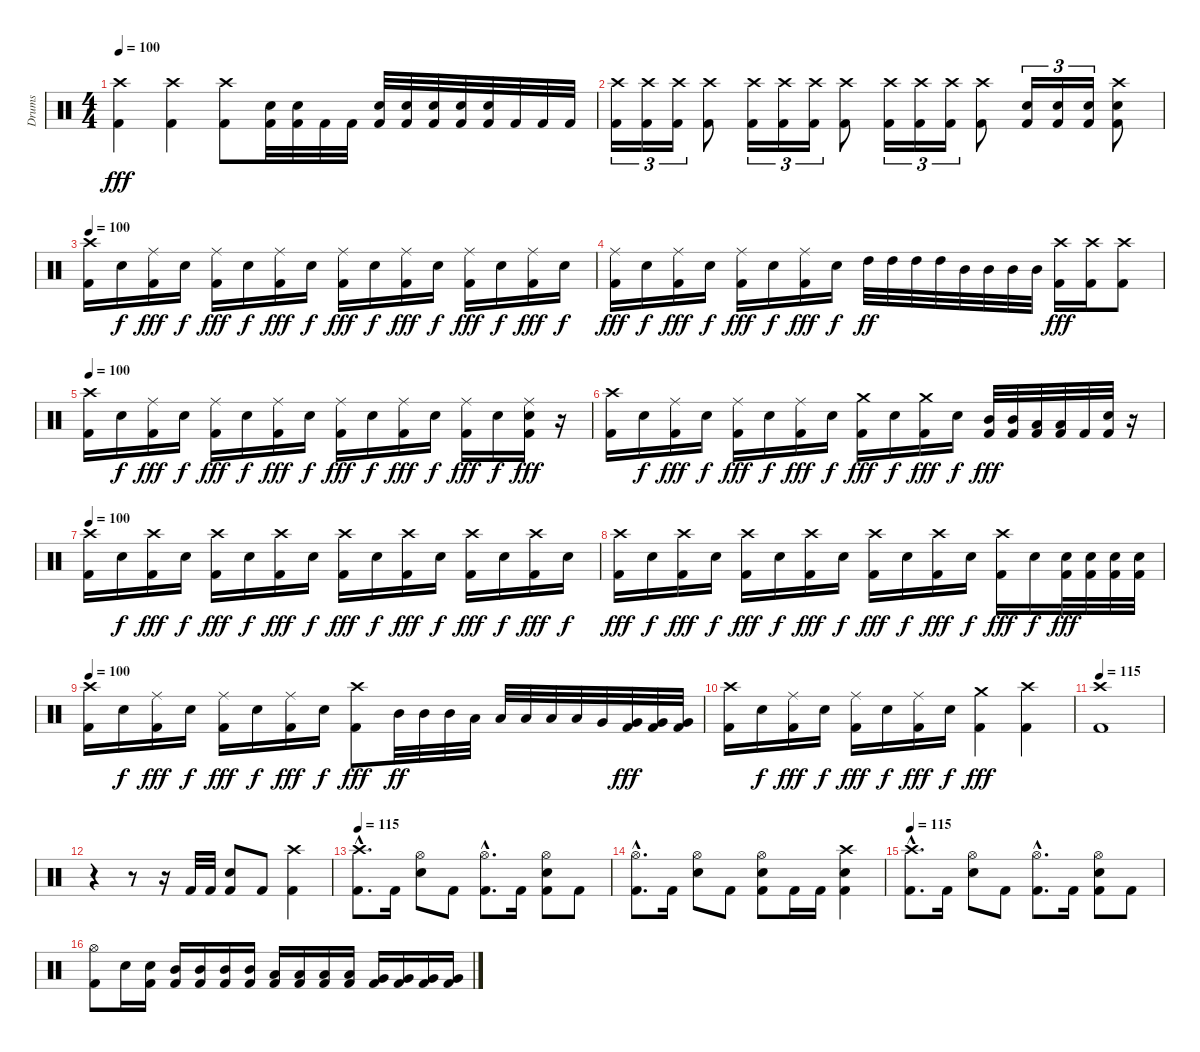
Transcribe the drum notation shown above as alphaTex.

\track ("Drums" "Drums") {instrument percussion}
\staff {score}
\articulation defaults
\ts (4 4)
\tempo 100
\clef neutral
\ks c
("Crash high (hit)" "Kick (hit) 2").4{dy fff} ("Crash high (hit)" "Kick (hit) 2").4 ("Crash high (hit)" "Kick (hit) 2").8 ("Snare (hit) 2" "Kick (hit) 2").32 ("Snare (hit) 2" "Kick (hit) 2").32 "Kick (hit) 2".32 "Kick (hit) 2".32 ("Snare (hit) 2" "Kick (hit) 2").32 ("Snare (hit) 2" "Kick (hit) 2").32 ("Snare (hit) 2" "Kick (hit) 2").32 ("Snare (hit) 2" "Kick (hit) 2").32 ("Snare (hit) 2" "Kick (hit) 2").32 "Kick (hit) 2".32 "Kick (hit) 2".32 "Kick (hit) 2".32 |
("Crash high (hit)" "Kick (hit) 2").16{tu (3 2)} ("Crash high (hit)" "Kick (hit) 2").16{tu (3 2)} ("Crash high (hit)" "Kick (hit) 2").16{tu (3 2)} ("Crash high (hit)" "Kick (hit) 2").8 ("Crash high (hit)" "Kick (hit) 2").16{tu (3 2)} ("Crash high (hit)" "Kick (hit) 2").16{tu (3 2)} ("Crash high (hit)" "Kick (hit) 2").16{tu (3 2)} ("Crash high (hit)" "Kick (hit) 2").8 ("Crash high (hit)" "Kick (hit) 2").16{tu (3 2)} ("Crash high (hit)" "Kick (hit) 2").16{tu (3 2)} ("Crash high (hit)" "Kick (hit) 2").16{tu (3 2)} ("Crash high (hit)" "Kick (hit) 2").8 ("Snare (hit) 2" "Kick (hit) 2").16{tu (3 2)} ("Snare (hit) 2" "Kick (hit) 2").16{tu (3 2)} ("Snare (hit) 2" "Kick (hit) 2").16{tu (3 2)} ("Crash high (hit)" "Snare (hit) 2" "Kick (hit) 2").8 |
\tempo 100
("Crash high (hit)" "Kick (hit) 2").16 "Snare (hit) 2".16{dy f} ("Ride (middle)" "Kick (hit) 2").16{dy fff} "Snare (hit) 2".16{dy f} ("Ride (middle)" "Kick (hit) 2").16{dy fff} "Snare (hit) 2".16{dy f} ("Ride (middle)" "Kick (hit) 2").16{dy fff} "Snare (hit) 2".16{dy f} ("Ride (middle)" "Kick (hit) 2").16{dy fff} "Snare (hit) 2".16{dy f} ("Ride (middle)" "Kick (hit) 2").16{dy fff} "Snare (hit) 2".16{dy f} ("Ride (middle)" "Kick (hit) 2").16{dy fff} "Snare (hit) 2".16{dy f} ("Ride (middle)" "Kick (hit) 2").16{dy fff} "Snare (hit) 2".16{dy f} |
("Ride (middle)" "Kick (hit) 2").16{dy fff} "Snare (hit) 2".16{dy f} ("Ride (middle)" "Kick (hit) 2").16{dy fff} "Snare (hit) 2".16{dy f} ("Ride (middle)" "Kick (hit) 2").16{dy fff} "Snare (hit) 2".16{dy f} ("Ride (middle)" "Kick (hit) 2").16{dy fff} "Snare (hit) 2".16{dy f} "High Tom (hit)".32{dy ff} "High Tom (hit)".32 "High Tom (hit)".32 "High Tom (hit)".32 "Mid Tom (hit)".32 "Mid Tom (hit)".32 "Mid Tom (hit)".32 "Mid Tom (hit)".32 ("Crash high (hit)" "Kick (hit) 2").16{dy fff} ("Crash high (hit)" "Kick (hit) 2").16 ("Crash high (hit)" "Kick (hit) 2").8 |
\tempo 100
("Crash high (hit)" "Kick (hit) 2").16 "Snare (hit) 2".16{dy f} ("Ride (middle)" "Kick (hit) 2").16{dy fff} "Snare (hit) 2".16{dy f} ("Ride (middle)" "Kick (hit) 2").16{dy fff} "Snare (hit) 2".16{dy f} ("Ride (middle)" "Kick (hit) 2").16{dy fff} "Snare (hit) 2".16{dy f} ("Ride (middle)" "Kick (hit) 2").16{dy fff} "Snare (hit) 2".16{dy f} ("Ride (middle)" "Kick (hit) 2").16{dy fff} "Snare (hit) 2".16{dy f} ("Ride (middle)" "Kick (hit) 2").16{dy fff} "Snare (hit) 2".16{dy f} ("Ride (middle)" "Snare (hit) 2" "Kick (hit) 2").16{dy fff} r.16 |
("Crash high (hit)" "Kick (hit) 2").16 "Snare (hit) 2".16{dy f} ("Ride (middle)" "Kick (hit) 2").16{dy fff} "Snare (hit) 2".16{dy f} ("Ride (middle)" "Kick (hit) 2").16{dy fff} "Snare (hit) 2".16{dy f} ("Ride (middle)" "Kick (hit) 2").16{dy fff} "Snare (hit) 2".16{dy f} ("Crash medium (hit)" "Kick (hit) 2").16{dy fff} "Snare (hit) 2".16{dy f} ("Crash medium (hit)" "Kick (hit) 2").16{dy fff} "Snare (hit) 2".16{dy f} ("Mid Tom (hit)" "Kick (hit) 2").32{dy fff} ("Mid Tom (hit)" "Kick (hit) 2").32 ("Low Tom (hit)" "Kick (hit) 2").32 ("Low Tom (hit)" "Kick (hit) 2").32 "Kick (hit) 2".32 ("Snare (hit) 2" "Kick (hit) 2").32 r.16 |
\tempo 100
("Crash high (hit)" "Kick (hit) 2").16 "Snare (hit) 2".16{dy f} ("Crash high (hit)" "Kick (hit) 2").16{dy fff} "Snare (hit) 2".16{dy f} ("Crash high (hit)" "Kick (hit) 2").16{dy fff} "Snare (hit) 2".16{dy f} ("Crash high (hit)" "Kick (hit) 2").16{dy fff} "Snare (hit) 2".16{dy f} ("Crash high (hit)" "Kick (hit) 2").16{dy fff} "Snare (hit) 2".16{dy f} ("Crash high (hit)" "Kick (hit) 2").16{dy fff} "Snare (hit) 2".16{dy f} ("Crash high (hit)" "Kick (hit) 2").16{dy fff} "Snare (hit) 2".16{dy f} ("Crash high (hit)" "Kick (hit) 2").16{dy fff} "Snare (hit) 2".16{dy f} |
("Crash high (hit)" "Kick (hit) 2").16{dy fff} "Snare (hit) 2".16{dy f} ("Crash high (hit)" "Kick (hit) 2").16{dy fff} "Snare (hit) 2".16{dy f} ("Crash high (hit)" "Kick (hit) 2").16{dy fff} "Snare (hit) 2".16{dy f} ("Crash high (hit)" "Kick (hit) 2").16{dy fff} "Snare (hit) 2".16{dy f} ("Crash high (hit)" "Kick (hit) 2").16{dy fff} "Snare (hit) 2".16{dy f} ("Crash high (hit)" "Kick (hit) 2").16{dy fff} "Snare (hit) 2".16{dy f} ("Crash high (hit)" "Kick (hit) 2").16{dy fff} "Snare (hit) 2".16{dy f} ("Snare (hit) 2" "Kick (hit) 2").32{dy fff} ("Snare (hit) 2" "Kick (hit) 2").32 ("Snare (hit) 2" "Kick (hit) 2").32 ("Snare (hit) 2" "Kick (hit) 2").32 |
\tempo 100
("Crash high (hit)" "Kick (hit) 2").16 "Snare (hit) 2".16{dy f} ("Ride (middle)" "Kick (hit) 2").16{dy fff} "Snare (hit) 2".16{dy f} ("Ride (middle)" "Kick (hit) 2").16{dy fff} "Snare (hit) 2".16{dy f} ("Ride (middle)" "Kick (hit) 2").16{dy fff} "Snare (hit) 2".16{dy f} ("Crash high (hit)" "Kick (hit) 2").8{dy fff} "Mid Tom (hit)".32{dy ff} "Mid Tom (hit)".32 "Mid Tom (hit)".32 "Low Tom (hit)".32 "Low Tom (hit)".32 "Low Tom (hit)".32 "Low Tom (hit)".32 "Low Tom (hit)".32 "Very Low Tom (hit)".32 ("Very Low Tom (hit)" "Kick (hit) 2").32{dy fff} ("Very Low Tom (hit)" "Kick (hit) 2").32 ("Very Low Tom (hit)" "Kick (hit) 2").32 |
("Crash high (hit)" "Kick (hit) 2").16 "Snare (hit) 2".16{dy f} ("Ride (middle)" "Kick (hit) 2").16{dy fff} "Snare (hit) 2".16{dy f} ("Ride (middle)" "Kick (hit) 2").16{dy fff} "Snare (hit) 2".16{dy f} ("Ride (middle)" "Kick (hit) 2").16{dy fff} "Snare (hit) 2".16{dy f} ("Crash medium (hit)" "Kick (hit) 2").4{dy fff} ("Crash high (hit)" "Kick (hit) 2").4 |
\tempo 115
("Crash high (hit)" "Kick (hit) 2").1 |
r.4 r.8 r.16 "Kick (hit) 2".32 "Kick (hit) 2".32 ("Snare (hit) 2" "Kick (hit) 2").8 "Kick (hit) 2".8 ("Crash high (hit)" "Kick (hit) 2").4 |
\tempo 115
("Crash high (hit)"{hac} "Kick (hit) 2"{hac}).8{d} "Kick (hit) 2".16 ("Hi-Hat (open)" "Snare (hit) 2").8 "Kick (hit) 2".8 ("Hi-Hat (open)"{hac} "Kick (hit) 2"{hac}).8{d} "Kick (hit) 2".16 ("Hi-Hat (open)" "Snare (hit) 2" "Kick (hit) 2").8 "Kick (hit) 2".8 |
("Hi-Hat (open)"{hac} "Kick (hit) 2"{hac}).8{d} "Kick (hit) 2".16 ("Hi-Hat (open)" "Snare (hit) 2").8 "Kick (hit) 2".8 ("Hi-Hat (open)" "Snare (hit) 2" "Kick (hit) 2").8 "Kick (hit) 2".16 "Kick (hit) 2".16 ("Crash high (hit)" "Snare (hit) 2" "Kick (hit) 2").4 |
\tempo 115
("Crash high (hit)"{hac} "Kick (hit) 2"{hac}).8{d} "Kick (hit) 2".16 ("Hi-Hat (open)" "Snare (hit) 2").8 "Kick (hit) 2".8 ("Hi-Hat (open)"{hac} "Kick (hit) 2"{hac}).8{d} "Kick (hit) 2".16 ("Hi-Hat (open)" "Snare (hit) 2" "Kick (hit) 2").8 "Kick (hit) 2".8 |
("Hi-Hat (open)" "Kick (hit) 2").8 "Snare (hit) 2".16 ("Snare (hit) 2" "Kick (hit) 2").16 ("Mid Tom (hit)" "Kick (hit) 2").16 ("Mid Tom (hit)" "Kick (hit) 2").16 ("Mid Tom (hit)" "Kick (hit) 2").16 ("Mid Tom (hit)" "Kick (hit) 2").16 ("Low Tom (hit)" "Kick (hit) 2").16 ("Low Tom (hit)" "Kick (hit) 2").16 ("Low Tom (hit)" "Kick (hit) 2").16 ("Low Tom (hit)" "Kick (hit) 2").16 ("Very Low Tom (hit)" "Kick (hit) 2").16 ("Very Low Tom (hit)" "Kick (hit) 2").16 ("Very Low Tom (hit)" "Kick (hit) 2").16 ("Very Low Tom (hit)" "Kick (hit) 2").16
